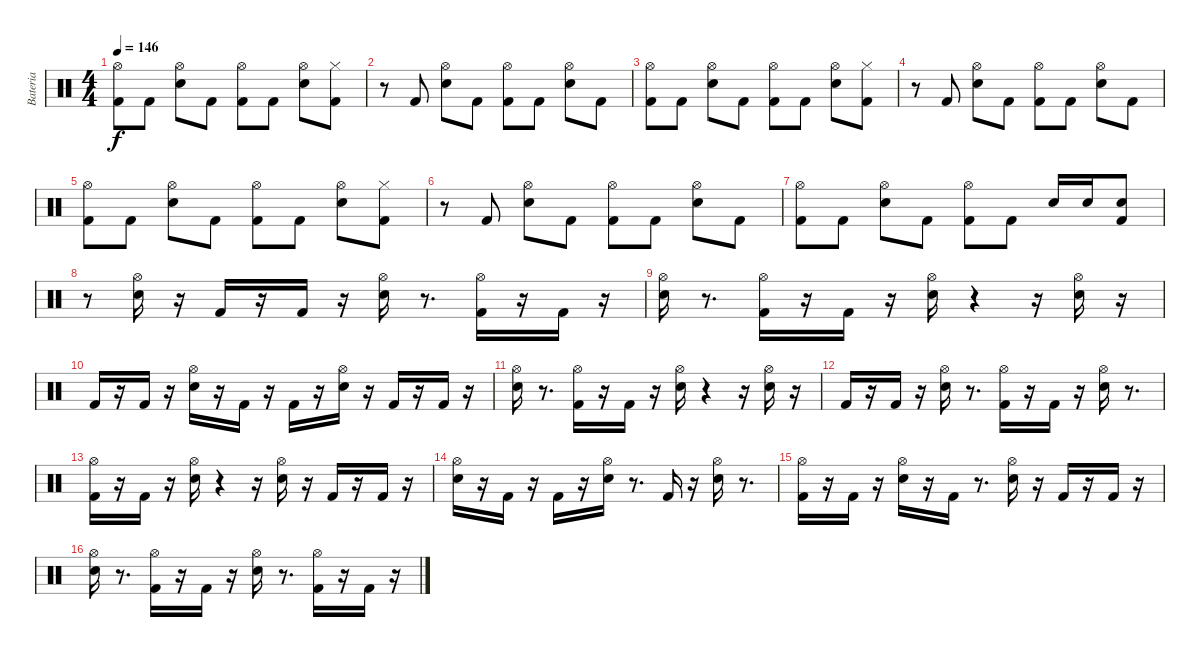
\track ("Bateria" "Bateria") {instrument percussion}
\staff {score}
\articulation defaults
\ts (4 4)
\tempo 146
\clef neutral
\ks c
("Hi-Hat (open)" "Kick (hit) 2").8{dy f} "Kick (hit) 2".8 ("Hi-Hat (open)" "Electric Snare (hit)").8 "Kick (hit) 2".8 ("Hi-Hat (open)" "Kick (hit) 2").8 "Kick (hit) 2".8 ("Hi-Hat (open)" "Electric Snare (hit)").8 ("Hi-Hat (closed)" "Kick (hit) 2").8 |
r.8 "Kick (hit) 2".8 ("Hi-Hat (open)" "Electric Snare (hit)").8 "Kick (hit) 2".8 ("Hi-Hat (open)" "Kick (hit) 2").8 "Kick (hit) 2".8 ("Hi-Hat (open)" "Electric Snare (hit)").8 "Kick (hit) 2".8 |
("Hi-Hat (open)" "Kick (hit) 2").8 "Kick (hit) 2".8 ("Hi-Hat (open)" "Electric Snare (hit)").8 "Kick (hit) 2".8 ("Hi-Hat (open)" "Kick (hit) 2").8 "Kick (hit) 2".8 ("Hi-Hat (open)" "Electric Snare (hit)").8 ("Hi-Hat (closed)" "Kick (hit) 2").8 |
r.8 "Kick (hit) 2".8 ("Hi-Hat (open)" "Electric Snare (hit)").8 "Kick (hit) 2".8 ("Hi-Hat (open)" "Kick (hit) 2").8 "Kick (hit) 2".8 ("Hi-Hat (open)" "Electric Snare (hit)").8 "Kick (hit) 2".8 |
("Hi-Hat (open)" "Kick (hit) 2").8 "Kick (hit) 2".8 ("Hi-Hat (open)" "Electric Snare (hit)").8 "Kick (hit) 2".8 ("Hi-Hat (open)" "Kick (hit) 2").8 "Kick (hit) 2".8 ("Hi-Hat (open)" "Electric Snare (hit)").8 ("Hi-Hat (closed)" "Kick (hit) 2").8 |
r.8 "Kick (hit) 2".8 ("Hi-Hat (open)" "Electric Snare (hit)").8 "Kick (hit) 2".8 ("Hi-Hat (open)" "Kick (hit) 2").8 "Kick (hit) 2".8 ("Hi-Hat (open)" "Electric Snare (hit)").8 "Kick (hit) 2".8 |
("Hi-Hat (open)" "Kick (hit) 2").8 "Kick (hit) 2".8 ("Hi-Hat (open)" "Electric Snare (hit)").8 "Kick (hit) 2".8 ("Hi-Hat (open)" "Kick (hit) 2").8 "Kick (hit) 2".8 "Electric Snare (hit)".16 "Electric Snare (hit)".16 ("Electric Snare (hit)" "Kick (hit) 2").8 |
r.8 ("Hi-Hat (open)" "Electric Snare (hit)").16 r.16 "Kick (hit) 2".16 r.16 "Kick (hit) 2".16 r.16 ("Electric Snare (hit)" "Hi-Hat (open)").16 r.8{d} ("Hi-Hat (open)" "Kick (hit) 2").16 r.16 "Kick (hit) 2".16 r.16 |
("Hi-Hat (open)" "Electric Snare (hit)").16 r.8{d} ("Hi-Hat (open)" "Kick (hit) 2").16 r.16 "Kick (hit) 2".16 r.16 ("Electric Snare (hit)" "Hi-Hat (open)").16 r.4 r.16 ("Hi-Hat (open)" "Electric Snare (hit)").16 r.16 |
"Kick (hit) 2".16 r.16 "Kick (hit) 2".16 r.16 ("Hi-Hat (open)" "Electric Snare (hit)").16 r.16 "Kick (hit) 2".16 r.16 "Kick (hit) 2".16 r.16 ("Hi-Hat (open)" "Electric Snare (hit)").16 r.16 "Kick (hit) 2".16 r.16 "Kick (hit) 2".16 r.16 |
("Electric Snare (hit)" "Hi-Hat (open)").16 r.8{d} ("Hi-Hat (open)" "Kick (hit) 2").16 r.16 "Kick (hit) 2".16 r.16 ("Hi-Hat (open)" "Electric Snare (hit)").16 r.4 r.16 ("Hi-Hat (open)" "Electric Snare (hit)").16 r.16 |
"Kick (hit) 2".16 r.16 "Kick (hit) 2".16 r.16 ("Hi-Hat (open)" "Electric Snare (hit)").16 r.8{d} ("Kick (hit) 2" "Hi-Hat (open)").16 r.16 "Kick (hit) 2".16 r.16 ("Electric Snare (hit)" "Hi-Hat (open)").16 r.8{d} |
("Kick (hit) 2" "Hi-Hat (open)").16 r.16 "Kick (hit) 2".16 r.16 ("Hi-Hat (open)" "Electric Snare (hit)").16 r.4 r.16 ("Hi-Hat (open)" "Electric Snare (hit)").16 r.16 "Kick (hit) 2".16 r.16 "Kick (hit) 2".16 r.16 |
("Hi-Hat (open)" "Electric Snare (hit)").16 r.16 "Kick (hit) 2".16 r.16 "Kick (hit) 2".16 r.16 ("Electric Snare (hit)" "Hi-Hat (open)").16 r.8{d} "Kick (hit) 2".16 r.16 ("Electric Snare (hit)" "Hi-Hat (open)").16 r.8{d} |
("Hi-Hat (open)" "Kick (hit) 2").16 r.16 "Kick (hit) 2".16 r.16 ("Hi-Hat (open)" "Electric Snare (hit)").16 r.16 "Kick (hit) 2".16 r.8{d} ("Hi-Hat (open)" "Electric Snare (hit)").16 r.16 "Kick (hit) 2".16 r.16 "Kick (hit) 2".16 r.16 |
("Hi-Hat (open)" "Electric Snare (hit)").16 r.8{d} ("Hi-Hat (open)" "Kick (hit) 2").16 r.16 "Kick (hit) 2".16 r.16 ("Hi-Hat (open)" "Electric Snare (hit)").16 r.8{d} ("Kick (hit) 2" "Hi-Hat (open)").16 r.16 "Kick (hit) 2".16 r.16
